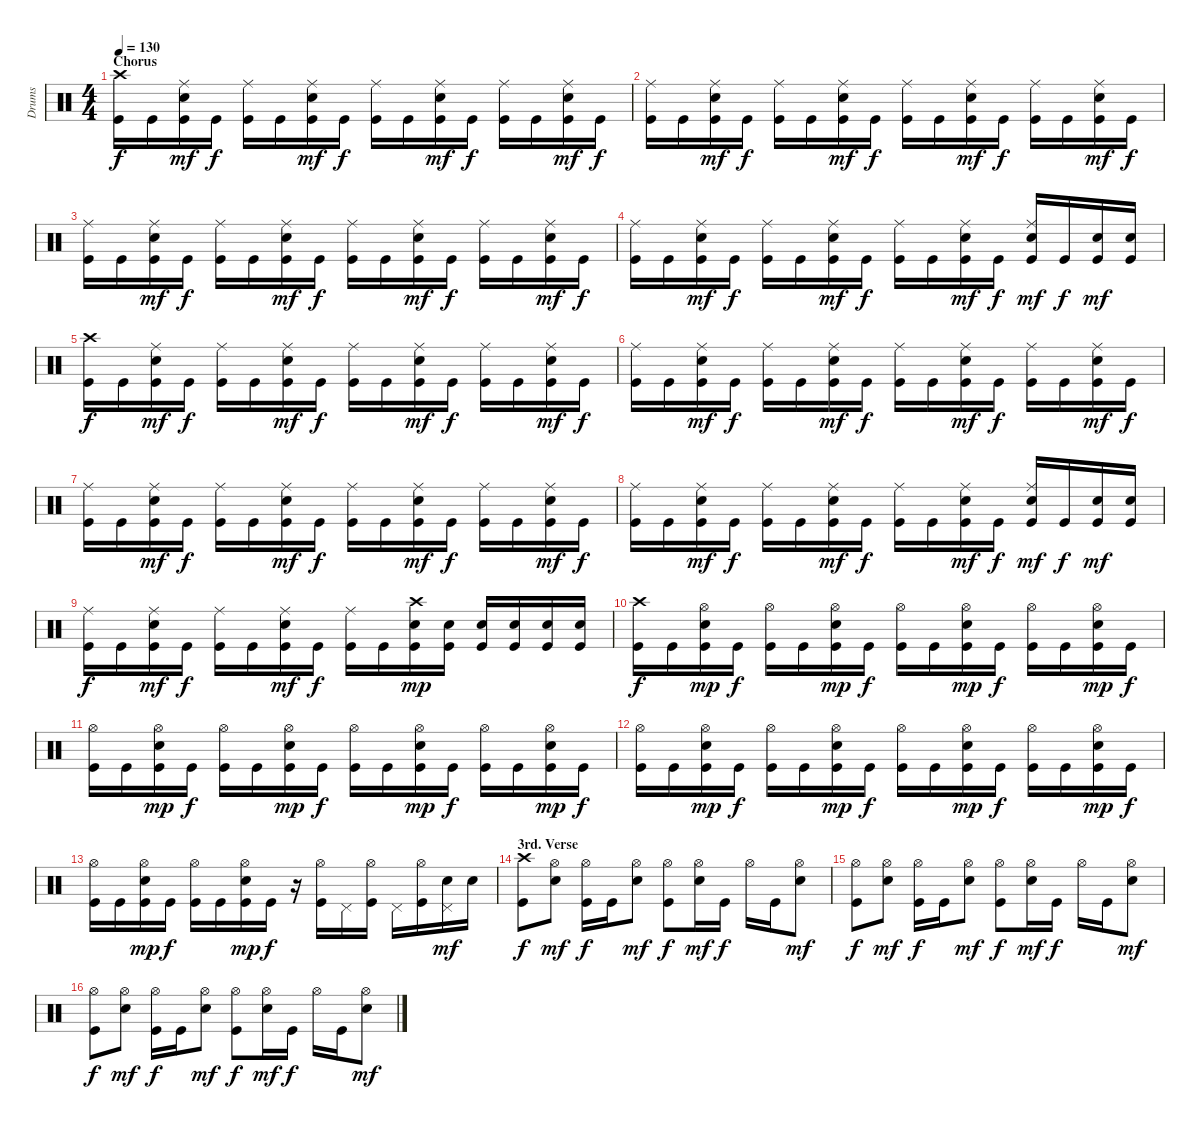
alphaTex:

\track ("Drums" "Drums") {instrument percussion}
\staff {score}
\articulation defaults
\ts (4 4)
\section ("" "Chorus")
\tempo 130
\clef neutral
\ks c
("Crash high (hit)" "Kick (hit)").16{dy f} "Kick (hit)".16 ("Ride (middle)" "Snare (hit) 2" "Kick (hit)").16{dy mf} "Kick (hit)".16{dy f} ("Ride (middle)" "Kick (hit)").16 "Kick (hit)".16 ("Ride (middle)" "Snare (hit) 2" "Kick (hit)").16{dy mf} "Kick (hit)".16{dy f} ("Ride (middle)" "Kick (hit)").16 "Kick (hit)".16 ("Ride (middle)" "Snare (hit) 2" "Kick (hit)").16{dy mf} "Kick (hit)".16{dy f} ("Ride (middle)" "Kick (hit)").16 "Kick (hit)".16 ("Ride (middle)" "Snare (hit) 2" "Kick (hit)").16{dy mf} "Kick (hit)".16{dy f} |
("Ride (middle)" "Kick (hit)").16 "Kick (hit)".16 ("Ride (middle)" "Snare (hit) 2" "Kick (hit)").16{dy mf} "Kick (hit)".16{dy f} ("Ride (middle)" "Kick (hit)").16 "Kick (hit)".16 ("Ride (middle)" "Snare (hit) 2" "Kick (hit)").16{dy mf} "Kick (hit)".16{dy f} ("Ride (middle)" "Kick (hit)").16 "Kick (hit)".16 ("Ride (middle)" "Snare (hit) 2" "Kick (hit)").16{dy mf} "Kick (hit)".16{dy f} ("Ride (middle)" "Kick (hit)").16 "Kick (hit)".16 ("Ride (middle)" "Snare (hit) 2" "Kick (hit)").16{dy mf} "Kick (hit)".16{dy f} |
("Ride (middle)" "Kick (hit)").16 "Kick (hit)".16 ("Ride (middle)" "Snare (hit) 2" "Kick (hit)").16{dy mf} "Kick (hit)".16{dy f} ("Ride (middle)" "Kick (hit)").16 "Kick (hit)".16 ("Ride (middle)" "Snare (hit) 2" "Kick (hit)").16{dy mf} "Kick (hit)".16{dy f} ("Ride (middle)" "Kick (hit)").16 "Kick (hit)".16 ("Ride (middle)" "Snare (hit) 2" "Kick (hit)").16{dy mf} "Kick (hit)".16{dy f} ("Ride (middle)" "Kick (hit)").16 "Kick (hit)".16 ("Ride (middle)" "Snare (hit) 2" "Kick (hit)").16{dy mf} "Kick (hit)".16{dy f} |
("Ride (middle)" "Kick (hit)").16 "Kick (hit)".16 ("Ride (middle)" "Snare (hit) 2" "Kick (hit)").16{dy mf} "Kick (hit)".16{dy f} ("Ride (middle)" "Kick (hit)").16 "Kick (hit)".16 ("Ride (middle)" "Snare (hit) 2" "Kick (hit)").16{dy mf} "Kick (hit)".16{dy f} ("Ride (middle)" "Kick (hit)").16 "Kick (hit)".16 ("Ride (middle)" "Snare (hit) 2" "Kick (hit)").16{dy mf} "Kick (hit)".16{dy f} ("Ride (middle)" "Snare (hit) 2" "Kick (hit)").16{dy mf} "Kick (hit)".16{dy f} ("Snare (hit) 2" "Kick (hit)").16{dy mf} ("Snare (hit) 2" "Kick (hit)").16 |
("Crash high (hit)" "Kick (hit)").16{dy f} "Kick (hit)".16 ("Ride (middle)" "Snare (hit) 2" "Kick (hit)").16{dy mf} "Kick (hit)".16{dy f} ("Ride (middle)" "Kick (hit)").16 "Kick (hit)".16 ("Ride (middle)" "Snare (hit) 2" "Kick (hit)").16{dy mf} "Kick (hit)".16{dy f} ("Ride (middle)" "Kick (hit)").16 "Kick (hit)".16 ("Ride (middle)" "Snare (hit) 2" "Kick (hit)").16{dy mf} "Kick (hit)".16{dy f} ("Ride (middle)" "Kick (hit)").16 "Kick (hit)".16 ("Ride (middle)" "Snare (hit) 2" "Kick (hit)").16{dy mf} "Kick (hit)".16{dy f} |
("Ride (middle)" "Kick (hit)").16 "Kick (hit)".16 ("Ride (middle)" "Snare (hit) 2" "Kick (hit)").16{dy mf} "Kick (hit)".16{dy f} ("Ride (middle)" "Kick (hit)").16 "Kick (hit)".16 ("Ride (middle)" "Snare (hit) 2" "Kick (hit)").16{dy mf} "Kick (hit)".16{dy f} ("Ride (middle)" "Kick (hit)").16 "Kick (hit)".16 ("Ride (middle)" "Snare (hit) 2" "Kick (hit)").16{dy mf} "Kick (hit)".16{dy f} ("Ride (middle)" "Kick (hit)").16 "Kick (hit)".16 ("Ride (middle)" "Snare (hit) 2" "Kick (hit)").16{dy mf} "Kick (hit)".16{dy f} |
("Ride (middle)" "Kick (hit)").16 "Kick (hit)".16 ("Ride (middle)" "Snare (hit) 2" "Kick (hit)").16{dy mf} "Kick (hit)".16{dy f} ("Ride (middle)" "Kick (hit)").16 "Kick (hit)".16 ("Ride (middle)" "Snare (hit) 2" "Kick (hit)").16{dy mf} "Kick (hit)".16{dy f} ("Ride (middle)" "Kick (hit)").16 "Kick (hit)".16 ("Ride (middle)" "Snare (hit) 2" "Kick (hit)").16{dy mf} "Kick (hit)".16{dy f} ("Ride (middle)" "Kick (hit)").16 "Kick (hit)".16 ("Ride (middle)" "Snare (hit) 2" "Kick (hit)").16{dy mf} "Kick (hit)".16{dy f} |
("Ride (middle)" "Kick (hit)").16 "Kick (hit)".16 ("Ride (middle)" "Snare (hit) 2" "Kick (hit)").16{dy mf} "Kick (hit)".16{dy f} ("Ride (middle)" "Kick (hit)").16 "Kick (hit)".16 ("Ride (middle)" "Snare (hit) 2" "Kick (hit)").16{dy mf} "Kick (hit)".16{dy f} ("Ride (middle)" "Kick (hit)").16 "Kick (hit)".16 ("Ride (middle)" "Snare (hit) 2" "Kick (hit)").16{dy mf} "Kick (hit)".16{dy f} ("Ride (middle)" "Snare (hit) 2" "Kick (hit)").16{dy mf} "Kick (hit)".16{dy f} ("Snare (hit) 2" "Kick (hit)").16{dy mf} ("Snare (hit) 2" "Kick (hit)").16 |
("Ride (middle)" "Kick (hit)").16{dy f} "Kick (hit)".16 ("Ride (middle)" "Snare (hit) 2" "Kick (hit)").16{dy mf} "Kick (hit)".16{dy f} ("Ride (middle)" "Kick (hit)").16 "Kick (hit)".16 ("Ride (middle)" "Snare (hit) 2" "Kick (hit)").16{dy mf} "Kick (hit)".16{dy f} ("Ride (middle)" "Kick (hit)").16 "Kick (hit)".16 ("Crash high (hit)" "Snare (hit) 2" "Kick (hit)").16{dy mp} ("Snare (hit) 2" "Kick (hit)").16 ("Snare (hit) 2" "Kick (hit)").16 ("Snare (hit) 2" "Kick (hit)").16 ("Snare (hit) 2" "Kick (hit)").16 ("Snare (hit) 2" "Kick (hit)").16 |
("Crash high (hit)" "Kick (hit)").16{dy f} "Kick (hit)".16 ("Hi-Hat (open)" "Snare (hit) 2" "Kick (hit)").16{dy mp} "Kick (hit)".16{dy f} ("Hi-Hat (open)" "Kick (hit)").16 "Kick (hit)".16 ("Hi-Hat (open)" "Snare (hit) 2" "Kick (hit)").16{dy mp} "Kick (hit)".16{dy f} ("Hi-Hat (open)" "Kick (hit)").16 "Kick (hit)".16 ("Hi-Hat (open)" "Snare (hit) 2" "Kick (hit)").16{dy mp} "Kick (hit)".16{dy f} ("Hi-Hat (open)" "Kick (hit)").16 "Kick (hit)".16 ("Hi-Hat (open)" "Snare (hit) 2" "Kick (hit)").16{dy mp} "Kick (hit)".16{dy f} |
("Hi-Hat (open)" "Kick (hit)").16 "Kick (hit)".16 ("Hi-Hat (open)" "Snare (hit) 2" "Kick (hit)").16{dy mp} "Kick (hit)".16{dy f} ("Hi-Hat (open)" "Kick (hit)").16 "Kick (hit)".16 ("Hi-Hat (open)" "Snare (hit) 2" "Kick (hit)").16{dy mp} "Kick (hit)".16{dy f} ("Hi-Hat (open)" "Kick (hit)").16 "Kick (hit)".16 ("Hi-Hat (open)" "Snare (hit) 2" "Kick (hit)").16{dy mp} "Kick (hit)".16{dy f} ("Hi-Hat (open)" "Kick (hit)").16 "Kick (hit)".16 ("Hi-Hat (open)" "Snare (hit) 2" "Kick (hit)").16{dy mp} "Kick (hit)".16{dy f} |
("Hi-Hat (open)" "Kick (hit)").16 "Kick (hit)".16 ("Hi-Hat (open)" "Snare (hit) 2" "Kick (hit)").16{dy mp} "Kick (hit)".16{dy f} ("Hi-Hat (open)" "Kick (hit)").16 "Kick (hit)".16 ("Hi-Hat (open)" "Snare (hit) 2" "Kick (hit)").16{dy mp} "Kick (hit)".16{dy f} ("Hi-Hat (open)" "Kick (hit)").16 "Kick (hit)".16 ("Hi-Hat (open)" "Snare (hit) 2" "Kick (hit)").16{dy mp} "Kick (hit)".16{dy f} ("Hi-Hat (open)" "Kick (hit)").16 "Kick (hit)".16 ("Hi-Hat (open)" "Snare (hit) 2" "Kick (hit)").16{dy mp} "Kick (hit)".16{dy f} |
("Hi-Hat (open)" "Kick (hit)").16 "Kick (hit)".16 ("Hi-Hat (open)" "Snare (hit) 2" "Kick (hit)").16{dy mp} "Kick (hit)".16{dy f} ("Hi-Hat (open)" "Kick (hit)").16 "Kick (hit)".16 ("Hi-Hat (open)" "Snare (hit) 2" "Kick (hit)").16{dy mp} "Kick (hit)".16{dy f} r.16 ("Hi-Hat (open)" "Kick (hit)").16 "Pedal Hi-Hat (hit)".16 ("Hi-Hat (open)" "Kick (hit)").16 "Pedal Hi-Hat (hit)".16 ("Hi-Hat (open)" "Kick (hit)").16 ("Pedal Hi-Hat (hit)" "Snare (hit) 2").16{dy mf} "Snare (hit) 2".16 |
\section ("" "3rd. Verse")
("Crash high (hit)" "Kick (hit)").8{dy f} ("Hi-Hat (open)" "Snare (hit) 2").8{dy mf} ("Hi-Hat (open)" "Kick (hit)").16{dy f} "Kick (hit)".16 ("Hi-Hat (open)" "Snare (hit) 2").8{dy mf} ("Hi-Hat (open)" "Kick (hit)").8{dy f} ("Hi-Hat (open)" "Snare (hit) 2").16{dy mf} "Kick (hit)".16{dy f} "Hi-Hat (open)".16 "Kick (hit)".16 ("Hi-Hat (open)" "Snare (hit) 2").8{dy mf} |
("Hi-Hat (open)" "Kick (hit)").8{dy f} ("Hi-Hat (open)" "Snare (hit) 2").8{dy mf} ("Hi-Hat (open)" "Kick (hit)").16{dy f} "Kick (hit)".16 ("Hi-Hat (open)" "Snare (hit) 2").8{dy mf} ("Hi-Hat (open)" "Kick (hit)").8{dy f} ("Hi-Hat (open)" "Snare (hit) 2").16{dy mf} "Kick (hit)".16{dy f} "Hi-Hat (open)".16 "Kick (hit)".16 ("Hi-Hat (open)" "Snare (hit) 2").8{dy mf} |
("Hi-Hat (open)" "Kick (hit)").8{dy f} ("Hi-Hat (open)" "Snare (hit) 2").8{dy mf} ("Hi-Hat (open)" "Kick (hit)").16{dy f} "Kick (hit)".16 ("Hi-Hat (open)" "Snare (hit) 2").8{dy mf} ("Hi-Hat (open)" "Kick (hit)").8{dy f} ("Hi-Hat (open)" "Snare (hit) 2").16{dy mf} "Kick (hit)".16{dy f} "Hi-Hat (open)".16 "Kick (hit)".16 ("Hi-Hat (open)" "Snare (hit) 2").8{dy mf}
